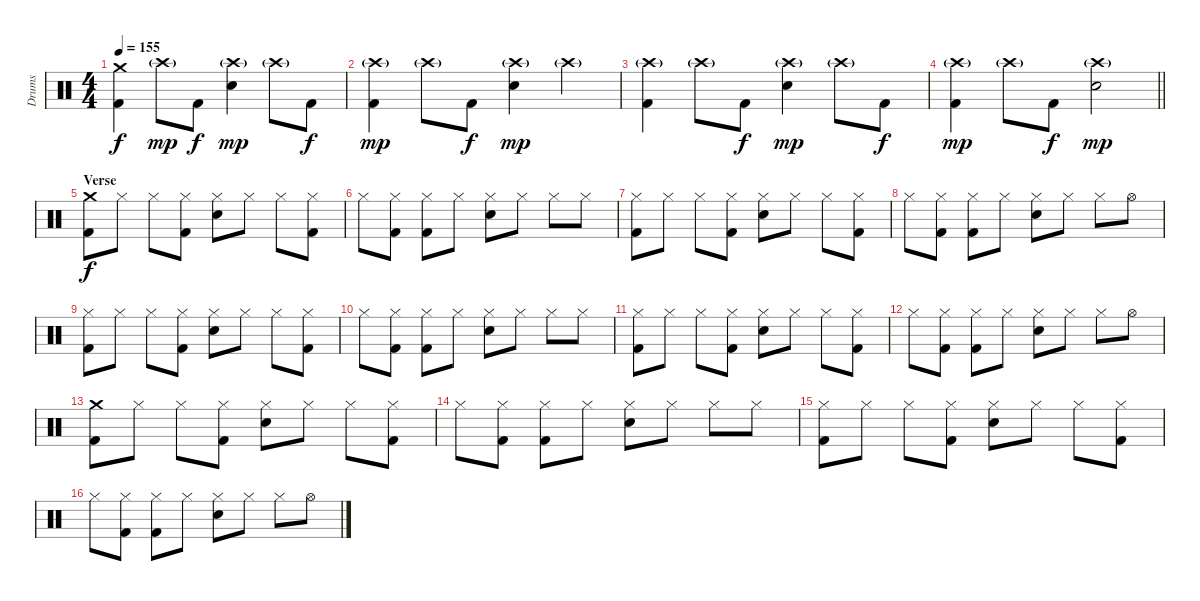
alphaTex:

\track ("Drums" "Drums") {instrument percussion}
\staff {score}
\articulation defaults
\ts (4 4)
\tempo 155
\clef neutral
\ks c
("Crash medium (hit)" "Kick (hit) 2").4{dy f} "Crash high (hit)"{g}.8{dy mp} "Kick (hit) 2".8{dy f} ("Crash high (hit)"{g} "Electric Snare (hit)").4{dy mp} "Crash high (hit)"{g}.8 "Kick (hit) 2".8{dy f} |
("Crash high (hit)"{g} "Kick (hit) 2").4{dy mp} "Crash high (hit)"{g}.8 "Kick (hit) 2".8{dy f} ("Crash high (hit)"{g} "Electric Snare (hit)").4{dy mp} "Crash high (hit)"{g}.4 |
("Crash high (hit)"{g} "Kick (hit) 2").4 "Crash high (hit)"{g}.8 "Kick (hit) 2".8{dy f} ("Crash high (hit)"{g} "Electric Snare (hit)").4{dy mp} "Crash high (hit)"{g}.8 "Kick (hit) 2".8{dy f} |
\barLineRight lightlight
("Crash high (hit)"{g} "Kick (hit) 2").4{dy mp} "Crash high (hit)"{g}.8 "Kick (hit) 2".8{dy f} ("Crash high (hit)"{g} "Electric Snare (hit)").2{dy mp} |
\section ("" "Verse")
("Crash medium (hit)" "Kick (hit) 2").8{dy f} "Hi-Hat (closed)".8 "Hi-Hat (closed)".8 ("Hi-Hat (closed)" "Kick (hit) 2").8 ("Hi-Hat (closed)" "Electric Snare (hit)").8 "Hi-Hat (closed)".8 "Hi-Hat (closed)".8 ("Hi-Hat (closed)" "Kick (hit) 2").8 |
"Hi-Hat (closed)".8 ("Hi-Hat (closed)" "Kick (hit) 2").8 ("Hi-Hat (closed)" "Kick (hit) 2").8 "Hi-Hat (closed)".8 ("Hi-Hat (closed)" "Electric Snare (hit)").8 "Hi-Hat (closed)".8 "Hi-Hat (closed)".8 "Hi-Hat (closed)".8 |
("Hi-Hat (closed)" "Kick (hit) 2").8 "Hi-Hat (closed)".8 "Hi-Hat (closed)".8 ("Hi-Hat (closed)" "Kick (hit) 2").8 ("Hi-Hat (closed)" "Electric Snare (hit)").8 "Hi-Hat (closed)".8 "Hi-Hat (closed)".8 ("Hi-Hat (closed)" "Kick (hit) 2").8 |
"Hi-Hat (closed)".8 ("Hi-Hat (closed)" "Kick (hit) 2").8 ("Hi-Hat (closed)" "Kick (hit) 2").8 "Hi-Hat (closed)".8 ("Hi-Hat (closed)" "Electric Snare (hit)").8 "Hi-Hat (closed)".8 "Hi-Hat (closed)".8 "Hi-Hat (open)".8 |
("Hi-Hat (closed)" "Kick (hit) 2").8 "Hi-Hat (closed)".8 "Hi-Hat (closed)".8 ("Hi-Hat (closed)" "Kick (hit) 2").8 ("Hi-Hat (closed)" "Electric Snare (hit)").8 "Hi-Hat (closed)".8 "Hi-Hat (closed)".8 ("Hi-Hat (closed)" "Kick (hit) 2").8 |
"Hi-Hat (closed)".8 ("Hi-Hat (closed)" "Kick (hit) 2").8 ("Hi-Hat (closed)" "Kick (hit) 2").8 "Hi-Hat (closed)".8 ("Hi-Hat (closed)" "Electric Snare (hit)").8 "Hi-Hat (closed)".8 "Hi-Hat (closed)".8 "Hi-Hat (closed)".8 |
("Hi-Hat (closed)" "Kick (hit) 2").8 "Hi-Hat (closed)".8 "Hi-Hat (closed)".8 ("Hi-Hat (closed)" "Kick (hit) 2").8 ("Hi-Hat (closed)" "Electric Snare (hit)").8 "Hi-Hat (closed)".8 "Hi-Hat (closed)".8 ("Hi-Hat (closed)" "Kick (hit) 2").8 |
"Hi-Hat (closed)".8 ("Hi-Hat (closed)" "Kick (hit) 2").8 ("Hi-Hat (closed)" "Kick (hit) 2").8 "Hi-Hat (closed)".8 ("Hi-Hat (closed)" "Electric Snare (hit)").8 "Hi-Hat (closed)".8 "Hi-Hat (closed)".8 "Hi-Hat (open)".8 |
("Crash medium (hit)" "Kick (hit) 2").8 "Hi-Hat (closed)".8 "Hi-Hat (closed)".8 ("Hi-Hat (closed)" "Kick (hit) 2").8 ("Hi-Hat (closed)" "Electric Snare (hit)").8 "Hi-Hat (closed)".8 "Hi-Hat (closed)".8 ("Hi-Hat (closed)" "Kick (hit) 2").8 |
"Hi-Hat (closed)".8 ("Hi-Hat (closed)" "Kick (hit) 2").8 ("Hi-Hat (closed)" "Kick (hit) 2").8 "Hi-Hat (closed)".8 ("Hi-Hat (closed)" "Electric Snare (hit)").8 "Hi-Hat (closed)".8 "Hi-Hat (closed)".8 "Hi-Hat (closed)".8 |
("Hi-Hat (closed)" "Kick (hit) 2").8 "Hi-Hat (closed)".8 "Hi-Hat (closed)".8 ("Hi-Hat (closed)" "Kick (hit) 2").8 ("Hi-Hat (closed)" "Electric Snare (hit)").8 "Hi-Hat (closed)".8 "Hi-Hat (closed)".8 ("Hi-Hat (closed)" "Kick (hit) 2").8 |
"Hi-Hat (closed)".8 ("Hi-Hat (closed)" "Kick (hit) 2").8 ("Hi-Hat (closed)" "Kick (hit) 2").8 "Hi-Hat (closed)".8 ("Hi-Hat (closed)" "Electric Snare (hit)").8 "Hi-Hat (closed)".8 "Hi-Hat (closed)".8 "Hi-Hat (open)".8
